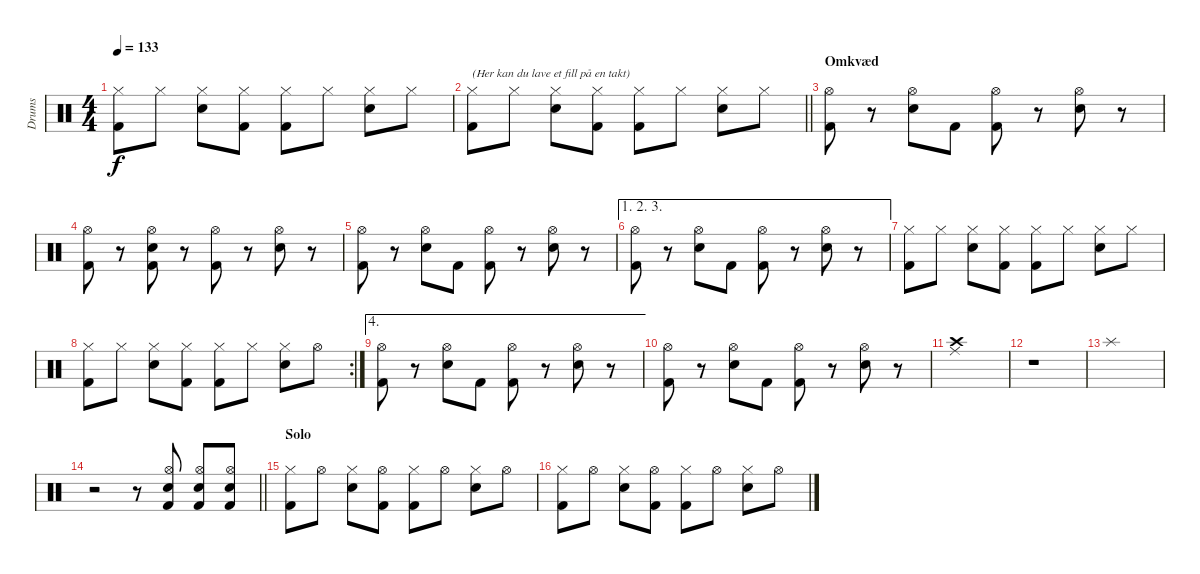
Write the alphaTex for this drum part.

\track ("Drums" "Drums") {instrument percussion bank 4}
\staff {score}
\articulation defaults
\ts (4 4)
\tempo 133
\clef neutral
\ks c
("Hi-Hat (closed)" "Kick (hit) 2").8{dy f} "Hi-Hat (closed)".8 ("Hi-Hat (closed)" "Snare (hit) 2").8 ("Hi-Hat (closed)" "Kick (hit) 2").8 ("Hi-Hat (closed)" "Kick (hit) 2").8 "Hi-Hat (closed)".8 ("Hi-Hat (closed)" "Snare (hit) 2").8 "Hi-Hat (closed)".8 |
\barLineRight lightlight
("Hi-Hat (closed)" "Kick (hit) 2").8{txt "(Her kan du lave et fill på en takt)"} "Hi-Hat (closed)".8 ("Hi-Hat (closed)" "Snare (hit) 2").8 ("Hi-Hat (closed)" "Kick (hit) 2").8 ("Hi-Hat (closed)" "Kick (hit) 2").8 "Hi-Hat (closed)".8 ("Hi-Hat (closed)" "Snare (hit) 2").8 "Hi-Hat (closed)".8 |
\section ("" "Omkvæd")
("Hi-Hat (open)" "Kick (hit) 2").8 r.8 ("Hi-Hat (open)" "Snare (hit) 2").8 "Kick (hit) 2".8 ("Hi-Hat (open)" "Kick (hit) 2").8 r.8 ("Hi-Hat (open)" "Snare (hit) 2").8 r.8 |
("Hi-Hat (open)" "Kick (hit) 2").8 r.8 ("Hi-Hat (open)" "Snare (hit) 2" "Kick (hit) 2").8 r.8 ("Hi-Hat (open)" "Kick (hit) 2").8 r.8 ("Hi-Hat (open)" "Snare (hit) 2").8 r.8 |
("Hi-Hat (open)" "Kick (hit) 2").8 r.8 ("Hi-Hat (open)" "Snare (hit) 2").8 "Kick (hit) 2".8 ("Hi-Hat (open)" "Kick (hit) 2").8 r.8 ("Hi-Hat (open)" "Snare (hit) 2").8 r.8 |
\ae (1 2 3)
("Hi-Hat (open)" "Kick (hit) 2").8 r.8 ("Hi-Hat (open)" "Snare (hit) 2").8 "Kick (hit) 2".8 ("Hi-Hat (open)" "Kick (hit) 2").8 r.8 ("Hi-Hat (open)" "Snare (hit) 2").8 r.8 |
("Hi-Hat (closed)" "Kick (hit) 2").8 "Hi-Hat (closed)".8 ("Hi-Hat (closed)" "Snare (hit) 2").8 ("Hi-Hat (closed)" "Kick (hit) 2").8 ("Hi-Hat (closed)" "Kick (hit) 2").8 "Hi-Hat (closed)".8 ("Hi-Hat (closed)" "Snare (hit) 2").8 "Hi-Hat (closed)".8 |
\rc 2
("Hi-Hat (closed)" "Kick (hit) 2").8 "Hi-Hat (closed)".8 ("Hi-Hat (closed)" "Snare (hit) 2").8 ("Hi-Hat (closed)" "Kick (hit) 2").8 ("Hi-Hat (closed)" "Kick (hit) 2").8 "Hi-Hat (closed)".8 ("Hi-Hat (closed)" "Snare (hit) 2").8 "Hi-Hat (open)".8 |
\ae 4
("Hi-Hat (open)" "Kick (hit) 2").8 r.8 ("Hi-Hat (open)" "Snare (hit) 2").8 "Kick (hit) 2".8 ("Hi-Hat (open)" "Kick (hit) 2").8 r.8 ("Hi-Hat (open)" "Snare (hit) 2").8 r.8 |
("Hi-Hat (open)" "Kick (hit) 2").8 r.8 ("Hi-Hat (open)" "Snare (hit) 2").8 "Kick (hit) 2".8 ("Hi-Hat (open)" "Kick (hit) 2").8 r.8 ("Hi-Hat (open)" "Snare (hit) 2").8 r.8 |
("Ride (middle)" "Crash high (hit)").1 |
r.1 |
"Splash (hit)".1 |
\barLineRight lightlight
r.2 r.8 ("Hi-Hat (open)" "Electric Snare (hit)" "Kick (hit) 2").8 ("Hi-Hat (open)" "Electric Snare (hit)" "Kick (hit) 2").8 ("Hi-Hat (open)" "Electric Snare (hit)" "Kick (hit) 2").8 |
\section ("" "Solo")
("Hi-Hat (closed)" "Kick (hit) 2").8 "Hi-Hat (open)".8 ("Hi-Hat (closed)" "Snare (hit) 2").8 ("Hi-Hat (open)" "Kick (hit) 2").8 ("Hi-Hat (closed)" "Kick (hit) 2").8 "Hi-Hat (open)".8 ("Hi-Hat (closed)" "Snare (hit) 2").8 "Hi-Hat (open)".8 |
("Hi-Hat (closed)" "Kick (hit) 2").8 "Hi-Hat (open)".8 ("Hi-Hat (closed)" "Snare (hit) 2").8 ("Hi-Hat (open)" "Kick (hit) 2").8 ("Hi-Hat (closed)" "Kick (hit) 2").8 "Hi-Hat (open)".8 ("Hi-Hat (closed)" "Snare (hit) 2").8 "Hi-Hat (open)".8
